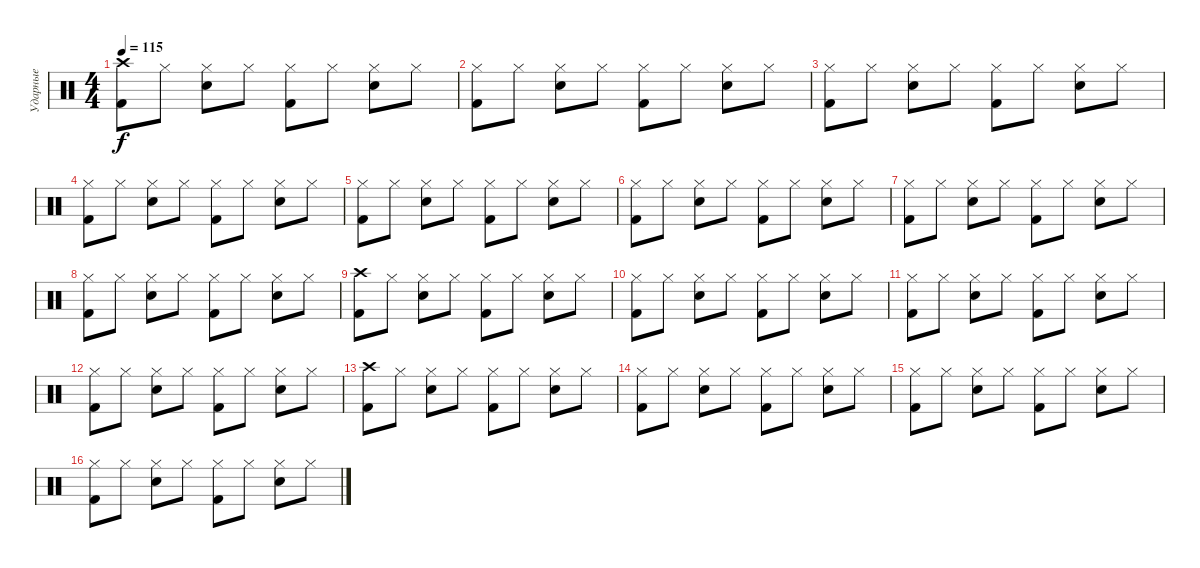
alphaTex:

\track ("Ударные" "Ударные") {instrument percussion}
\staff {score}
\articulation defaults
\ts (4 4)
\tempo 115
\clef neutral
\ks c
("Crash high (hit)" "Kick (hit) 2").8{dy f} "Hi-Hat (closed)".8 ("Hi-Hat (closed)" "Snare (hit) 2").8 "Hi-Hat (closed)".8 ("Hi-Hat (closed)" "Kick (hit) 2").8 "Hi-Hat (closed)".8 ("Hi-Hat (closed)" "Snare (hit) 2").8 "Hi-Hat (closed)".8 |
("Hi-Hat (closed)" "Kick (hit) 2").8 "Hi-Hat (closed)".8 ("Hi-Hat (closed)" "Snare (hit) 2").8 "Hi-Hat (closed)".8 ("Hi-Hat (closed)" "Kick (hit) 2").8 "Hi-Hat (closed)".8 ("Hi-Hat (closed)" "Snare (hit) 2").8 "Hi-Hat (closed)".8 |
("Hi-Hat (closed)" "Kick (hit) 2").8 "Hi-Hat (closed)".8 ("Hi-Hat (closed)" "Snare (hit) 2").8 "Hi-Hat (closed)".8 ("Hi-Hat (closed)" "Kick (hit) 2").8 "Hi-Hat (closed)".8 ("Hi-Hat (closed)" "Snare (hit) 2").8 "Hi-Hat (closed)".8 |
("Hi-Hat (closed)" "Kick (hit) 2").8 "Hi-Hat (closed)".8 ("Hi-Hat (closed)" "Snare (hit) 2").8 "Hi-Hat (closed)".8 ("Hi-Hat (closed)" "Kick (hit) 2").8 "Hi-Hat (closed)".8 ("Hi-Hat (closed)" "Snare (hit) 2").8 "Hi-Hat (closed)".8 |
("Hi-Hat (closed)" "Kick (hit) 2").8 "Hi-Hat (closed)".8 ("Hi-Hat (closed)" "Snare (hit) 2").8 "Hi-Hat (closed)".8 ("Hi-Hat (closed)" "Kick (hit) 2").8 "Hi-Hat (closed)".8 ("Hi-Hat (closed)" "Snare (hit) 2").8 "Hi-Hat (closed)".8 |
("Hi-Hat (closed)" "Kick (hit) 2").8 "Hi-Hat (closed)".8 ("Hi-Hat (closed)" "Snare (hit) 2").8 "Hi-Hat (closed)".8 ("Hi-Hat (closed)" "Kick (hit) 2").8 "Hi-Hat (closed)".8 ("Hi-Hat (closed)" "Snare (hit) 2").8 "Hi-Hat (closed)".8 |
("Hi-Hat (closed)" "Kick (hit) 2").8 "Hi-Hat (closed)".8 ("Hi-Hat (closed)" "Snare (hit) 2").8 "Hi-Hat (closed)".8 ("Hi-Hat (closed)" "Kick (hit) 2").8 "Hi-Hat (closed)".8 ("Hi-Hat (closed)" "Snare (hit) 2").8 "Hi-Hat (closed)".8 |
("Hi-Hat (closed)" "Kick (hit) 2").8 "Hi-Hat (closed)".8 ("Hi-Hat (closed)" "Snare (hit) 2").8 "Hi-Hat (closed)".8 ("Hi-Hat (closed)" "Kick (hit) 2").8 "Hi-Hat (closed)".8 ("Hi-Hat (closed)" "Snare (hit) 2").8 "Hi-Hat (closed)".8 |
("Crash high (hit)" "Kick (hit) 2").8 "Hi-Hat (closed)".8 ("Hi-Hat (closed)" "Snare (hit) 2").8 "Hi-Hat (closed)".8 ("Hi-Hat (closed)" "Kick (hit) 2").8 "Hi-Hat (closed)".8 ("Hi-Hat (closed)" "Snare (hit) 2").8 "Hi-Hat (closed)".8 |
("Hi-Hat (closed)" "Kick (hit) 2").8 "Hi-Hat (closed)".8 ("Hi-Hat (closed)" "Snare (hit) 2").8 "Hi-Hat (closed)".8 ("Hi-Hat (closed)" "Kick (hit) 2").8 "Hi-Hat (closed)".8 ("Hi-Hat (closed)" "Snare (hit) 2").8 "Hi-Hat (closed)".8 |
("Hi-Hat (closed)" "Kick (hit) 2").8 "Hi-Hat (closed)".8 ("Hi-Hat (closed)" "Snare (hit) 2").8 "Hi-Hat (closed)".8 ("Hi-Hat (closed)" "Kick (hit) 2").8 "Hi-Hat (closed)".8 ("Hi-Hat (closed)" "Snare (hit) 2").8 "Hi-Hat (closed)".8 |
("Hi-Hat (closed)" "Kick (hit) 2").8 "Hi-Hat (closed)".8 ("Hi-Hat (closed)" "Snare (hit) 2").8 "Hi-Hat (closed)".8 ("Hi-Hat (closed)" "Kick (hit) 2").8 "Hi-Hat (closed)".8 ("Hi-Hat (closed)" "Snare (hit) 2").8 "Hi-Hat (closed)".8 |
("Crash high (hit)" "Kick (hit) 2").8 "Hi-Hat (closed)".8 ("Hi-Hat (closed)" "Snare (hit) 2").8 "Hi-Hat (closed)".8 ("Hi-Hat (closed)" "Kick (hit) 2").8 "Hi-Hat (closed)".8 ("Hi-Hat (closed)" "Snare (hit) 2").8 "Hi-Hat (closed)".8 |
("Hi-Hat (closed)" "Kick (hit) 2").8 "Hi-Hat (closed)".8 ("Hi-Hat (closed)" "Snare (hit) 2").8 "Hi-Hat (closed)".8 ("Hi-Hat (closed)" "Kick (hit) 2").8 "Hi-Hat (closed)".8 ("Hi-Hat (closed)" "Snare (hit) 2").8 "Hi-Hat (closed)".8 |
("Hi-Hat (closed)" "Kick (hit) 2").8 "Hi-Hat (closed)".8 ("Hi-Hat (closed)" "Snare (hit) 2").8 "Hi-Hat (closed)".8 ("Hi-Hat (closed)" "Kick (hit) 2").8 "Hi-Hat (closed)".8 ("Hi-Hat (closed)" "Snare (hit) 2").8 "Hi-Hat (closed)".8 |
("Hi-Hat (closed)" "Kick (hit) 2").8 "Hi-Hat (closed)".8 ("Hi-Hat (closed)" "Snare (hit) 2").8 "Hi-Hat (closed)".8 ("Hi-Hat (closed)" "Kick (hit) 2").8 "Hi-Hat (closed)".8 ("Hi-Hat (closed)" "Snare (hit) 2").8 "Hi-Hat (closed)".8
